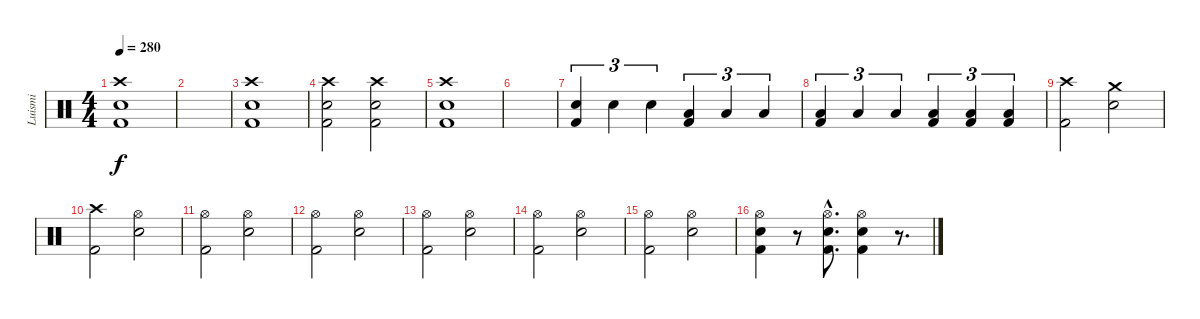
\track ("Luismi" "Luismi") {instrument percussion}
\staff {score}
\articulation defaults
\ts (4 4)
\tempo 280
\clef neutral
\ks c
("Crash high (hit)" "Snare (hit) 2" "Kick (hit) 2").1{dy f} |
|
("Crash high (hit)" "Snare (hit) 2" "Kick (hit) 2").1 |
("Crash high (hit)" "Snare (hit) 2" "Kick (hit) 2").2 ("Crash high (hit)" "Snare (hit) 2" "Kick (hit) 2").2 |
("Crash high (hit)" "Snare (hit) 2" "Kick (hit) 2").1 |
|
("Snare (hit) 2" "Kick (hit) 2").4{tu (3 2)} "Snare (hit) 2".4{tu (3 2)} "Snare (hit) 2".4{tu (3 2)} ("Low Tom (hit)" "Kick (hit) 2").4{tu (3 2)} "Low Tom (hit)".4{tu (3 2)} "Low Tom (hit)".4{tu (3 2)} |
("Low Floor Tom (hit)" "Kick (hit) 2").4{tu (3 2)} "Low Floor Tom (hit)".4{tu (3 2)} "Low Floor Tom (hit)".4{tu (3 2)} ("Low Floor Tom (hit)" "Kick (hit) 2").4{tu (3 2)} ("Low Floor Tom (hit)" "Kick (hit) 2").4{tu (3 2)} ("Low Floor Tom (hit)" "Kick (hit) 2").4{tu (3 2)} |
("Crash high (hit)" "Kick (hit) 2").2 ("Crash medium (hit)" "Snare (hit) 2").2 |
("Crash high (hit)" "Kick (hit) 2").2 ("Hi-Hat (open)" "Snare (hit) 2").2 |
("Hi-Hat (open)" "Kick (hit) 2").2 ("Hi-Hat (open)" "Snare (hit) 2").2 |
("Hi-Hat (open)" "Kick (hit) 2").2 ("Hi-Hat (open)" "Snare (hit) 2").2 |
("Hi-Hat (open)" "Kick (hit) 2").2 ("Hi-Hat (open)" "Snare (hit) 2").2 |
("Hi-Hat (open)" "Kick (hit) 2").2 ("Hi-Hat (open)" "Snare (hit) 2").2 |
("Hi-Hat (open)" "Kick (hit) 2").2 ("Hi-Hat (open)" "Snare (hit) 2").2 |
("Hi-Hat (open)" "Snare (hit) 2" "Kick (hit) 2").4 r.8 ("Hi-Hat (open)"{hac} "Snare (hit) 2"{hac} "Kick (hit) 2"{hac}).8{d} ("Hi-Hat (open)" "Snare (hit) 2" "Kick (hit) 2").4 r.8{d}
